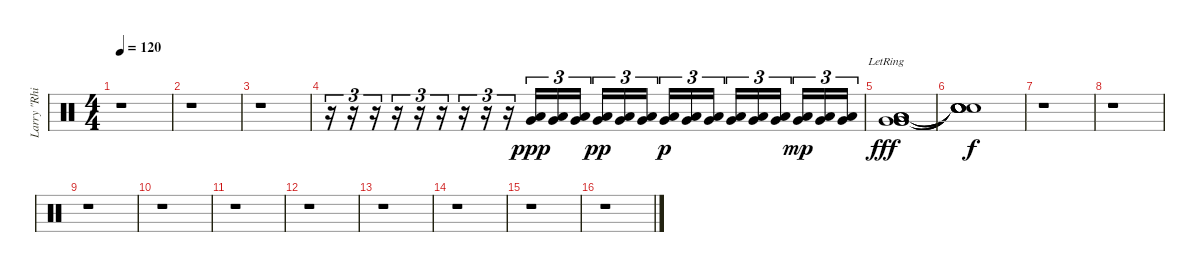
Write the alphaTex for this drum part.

\track ("Larry \"Rhino\" Rheinhart" "Larry \"Rhi") {instrument percussion}
\staff {score}
\articulation defaults
\ts (4 4)
\tempo 120
\clef neutral
\ks c
r.1{dy f} |
r.1 |
r.1 |
r.16{tu (3 2)} r.16{tu (3 2)} r.16{tu (3 2)} r.16{tu (3 2)} r.16{tu (3 2)} r.16{tu (3 2)} r.16{tu (3 2)} r.16{tu (3 2)} r.16{tu (3 2)} ("Low Floor Tom (hit)" "Very Low Tom (hit)").16{tu (3 2) dy ppp} ("Low Floor Tom (hit)" "Very Low Tom (hit)").16{tu (3 2)} ("Low Floor Tom (hit)" "Very Low Tom (hit)").16{tu (3 2)} ("Low Floor Tom (hit)" "Very Low Tom (hit)").16{tu (3 2) dy pp} ("Low Floor Tom (hit)" "Very Low Tom (hit)").16{tu (3 2)} ("Low Floor Tom (hit)" "Very Low Tom (hit)").16{tu (3 2) beam splitsecondary} ("Low Floor Tom (hit)" "Very Low Tom (hit)").16{tu (3 2) dy p} ("Low Floor Tom (hit)" "Very Low Tom (hit)").16{tu (3 2)} ("Low Floor Tom (hit)" "Very Low Tom (hit)").16{tu (3 2)} ("Low Floor Tom (hit)" "Very Low Tom (hit)").16{tu (3 2)} ("Low Floor Tom (hit)" "Very Low Tom (hit)").16{tu (3 2)} ("Low Floor Tom (hit)" "Very Low Tom (hit)").16{tu (3 2) beam splitsecondary} ("Low Floor Tom (hit)" "Very Low Tom (hit)").16{tu (3 2) dy mp} ("Low Floor Tom (hit)" "Very Low Tom (hit)").16{tu (3 2)} ("Low Floor Tom (hit)" "Very Low Tom (hit)").16{tu (3 2)} |
("Very Low Tom (hit)"{lr} "Very Low Tom (hit)" "Very Low Tom (hit)" "Low Floor Tom (hit)" "Low Floor Tom (hit)" "Low Floor Tom (hit)").1{dy fff volume 16 balance 13} |
("Snare (hit)"{t} "Snare (hit)"{t} "Snare (hit)"{t} "Snare (hit)"{t} "Snare (hit)"{t} "Snare (hit)"{t}).1{dy f} |
r.1 |
r.1 |
r.1 |
r.1 |
r.1 |
r.1 |
r.1 |
r.1 |
r.1 |
r.1
